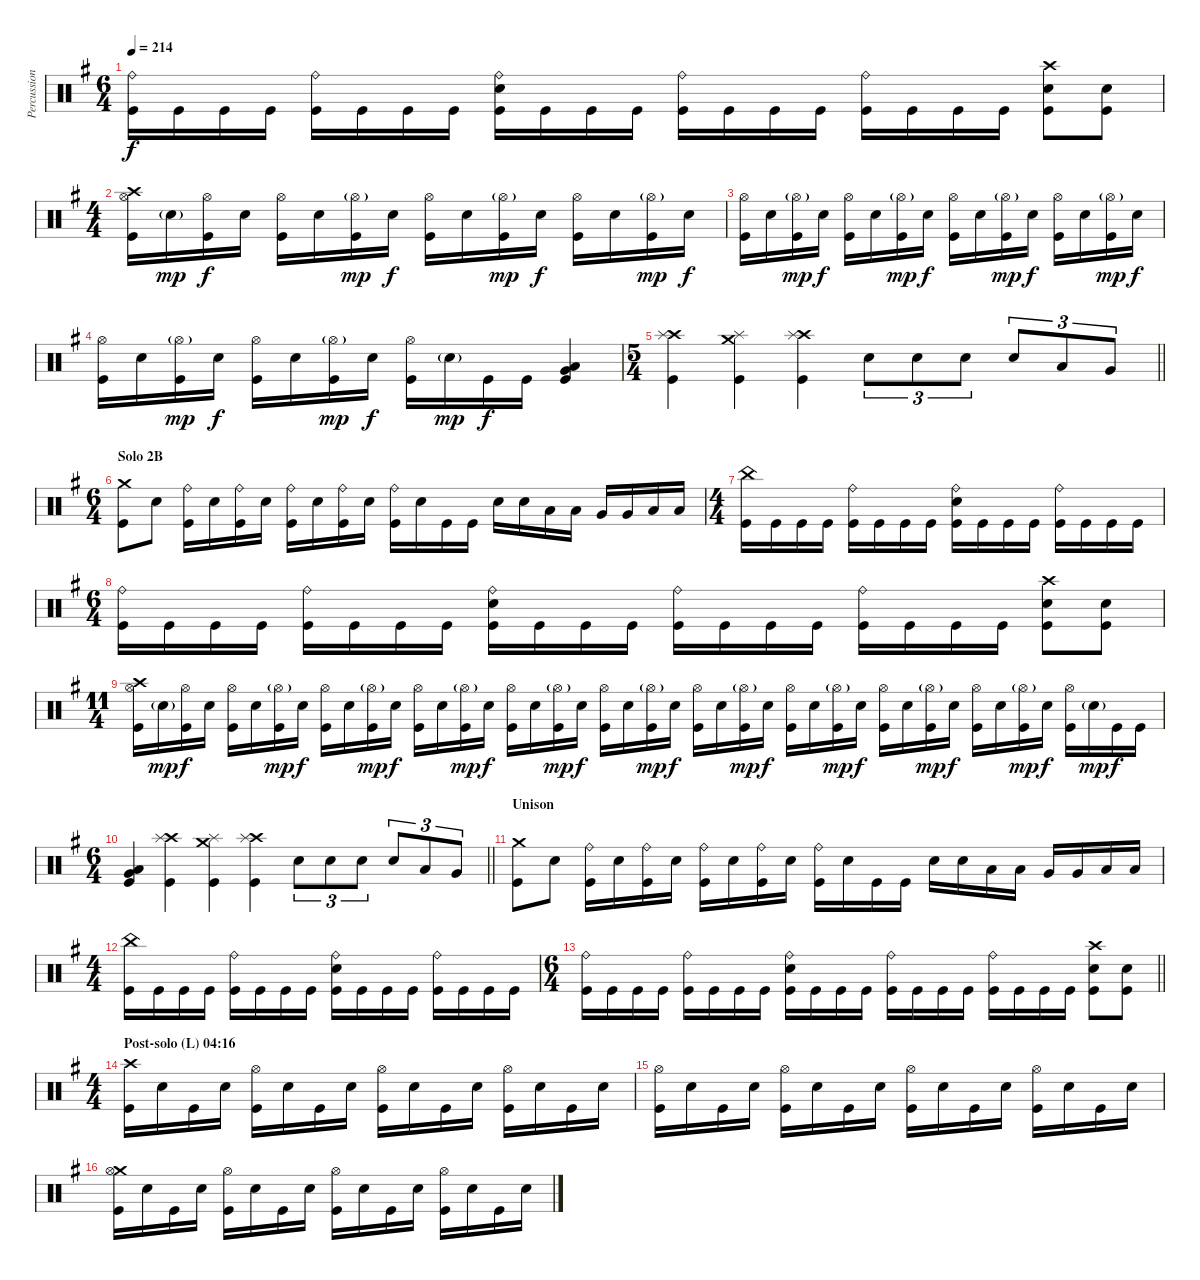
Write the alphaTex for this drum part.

\track ("Percussion" "Percussion") {instrument percussion}
\staff {score}
\articulation defaults
\ts (6 4)
\tempo 214
\clef neutral
\ks eminor
("Ride (bell)" "Kick (hit)").16{dy f} "Kick (hit)".16 "Kick (hit)".16 "Kick (hit)".16 ("Ride (bell)" "Kick (hit)").16 "Kick (hit)".16 "Kick (hit)".16 "Kick (hit)".16 ("Ride (bell)" "Snare (hit) 2" "Kick (hit)").16 "Kick (hit)".16 "Kick (hit)".16 "Kick (hit)".16 ("Ride (bell)" "Kick (hit)").16 "Kick (hit)".16 "Kick (hit)".16 "Kick (hit)".16 ("Ride (bell)" "Kick (hit)").16 "Kick (hit)".16 "Kick (hit)".16 "Kick (hit)".16 ("Crash high (hit)" "Snare (hit) 2" "Kick (hit)").8 ("Snare (hit) 2" "Kick (hit)").8 |
\ts (4 4)
("Crash high (hit)" "Hi-Hat (open)" "Kick (hit)").16 "Snare (hit) 2"{g}.16{dy mp} ("Hi-Hat (open)" "Kick (hit)").16{dy f} "Snare (hit) 2".16 ("Hi-Hat (open)" "Kick (hit)").16 "Snare (hit) 2".16 ("Hi-Hat (open)"{g} "Kick (hit)").16{dy mp} "Snare (hit) 2".16{dy f} ("Hi-Hat (open)" "Kick (hit)").16 "Snare (hit) 2".16 ("Hi-Hat (open)"{g} "Kick (hit)").16{dy mp} "Snare (hit) 2".16{dy f} ("Hi-Hat (open)" "Kick (hit)").16 "Snare (hit) 2".16 ("Hi-Hat (open)"{g} "Kick (hit)").16{dy mp} "Snare (hit) 2".16{dy f} |
("Hi-Hat (open)" "Kick (hit)").16 "Snare (hit) 2".16 ("Hi-Hat (open)"{g} "Kick (hit)").16{dy mp} "Snare (hit) 2".16{dy f} ("Hi-Hat (open)" "Kick (hit)").16 "Snare (hit) 2".16 ("Hi-Hat (open)"{g} "Kick (hit)").16{dy mp} "Snare (hit) 2".16{dy f} ("Hi-Hat (open)" "Kick (hit)").16 "Snare (hit) 2".16 ("Hi-Hat (open)"{g} "Kick (hit)").16{dy mp} "Snare (hit) 2".16{dy f} ("Hi-Hat (open)" "Kick (hit)").16 "Snare (hit) 2".16 ("Hi-Hat (open)"{g} "Kick (hit)").16{dy mp} "Snare (hit) 2".16{dy f} |
("Hi-Hat (open)" "Kick (hit)").16 "Snare (hit) 2".16 ("Hi-Hat (open)"{g} "Kick (hit)").16{dy mp} "Snare (hit) 2".16{dy f} ("Hi-Hat (open)" "Kick (hit)").16 "Snare (hit) 2".16 ("Hi-Hat (open)"{g} "Kick (hit)").16{dy mp} "Snare (hit) 2".16{dy f} ("Hi-Hat (open)" "Kick (hit)").16 "Snare (hit) 2"{g}.16{dy mp} "Kick (hit)".16{dy f} "Kick (hit)".16 ("Very Low Tom (hit)" "Low Floor Tom (hit)" "Kick (hit)").4 |
\ts (5 4)
\barLineRight lightlight
("Crash high (hit)" "Splash (hit)" "Kick (hit)").4 ("Crash medium (hit)" "Splash (hit)" "Kick (hit)").4 ("Crash high (hit)" "Splash (hit)" "Kick (hit)").4 "Snare (hit) 2".8{tu (3 2)} "Snare (hit) 2".8{tu (3 2)} "Snare (hit) 2".8{tu (3 2)} "Snare (hit) 2".8{tu (3 2)} "Low Tom (hit)".8{tu (3 2)} "Very Low Tom (hit)".8{tu (3 2)} |
\ts (6 4)
\section ("" "Solo 2B")
("Crash medium (hit)" "Kick (hit)").8 "Snare (hit) 2".8 ("Ride (bell)" "Kick (hit)").16 "Snare (hit) 2".16 ("Ride (bell)" "Kick (hit)").16 "Snare (hit) 2".16 ("Ride (bell)" "Kick (hit)").16 "Snare (hit) 2".16 ("Ride (bell)" "Kick (hit)").16 "Snare (hit) 2".16 ("Ride (bell)" "Kick (hit)").16 "Snare (hit) 2".16 "Kick (hit)".16 "Kick (hit)".16 "Snare (hit) 2".16 "Snare (hit) 2".16 "Low Tom (hit)".16 "Low Tom (hit)".16 "Very Low Tom (hit)".16 "Very Low Tom (hit)".16 "Low Floor Tom (hit)".16 "Low Floor Tom (hit)".16 |
\ts (4 4)
("China (hit)" "Kick (hit)").16 "Kick (hit)".16 "Kick (hit)".16 "Kick (hit)".16 ("Ride (bell)" "Kick (hit)").16 "Kick (hit)".16 "Kick (hit)".16 "Kick (hit)".16 ("Ride (bell)" "Snare (hit) 2" "Kick (hit)").16 "Kick (hit)".16 "Kick (hit)".16 "Kick (hit)".16 ("Ride (bell)" "Kick (hit)").16 "Kick (hit)".16 "Kick (hit)".16 "Kick (hit)".16 |
\ts (6 4)
("Ride (bell)" "Kick (hit)").16 "Kick (hit)".16 "Kick (hit)".16 "Kick (hit)".16 ("Ride (bell)" "Kick (hit)").16 "Kick (hit)".16 "Kick (hit)".16 "Kick (hit)".16 ("Ride (bell)" "Snare (hit) 2" "Kick (hit)").16 "Kick (hit)".16 "Kick (hit)".16 "Kick (hit)".16 ("Ride (bell)" "Kick (hit)").16 "Kick (hit)".16 "Kick (hit)".16 "Kick (hit)".16 ("Ride (bell)" "Kick (hit)").16 "Kick (hit)".16 "Kick (hit)".16 "Kick (hit)".16 ("Crash high (hit)" "Snare (hit) 2" "Kick (hit)").8 ("Snare (hit) 2" "Kick (hit)").8 |
\ts (11 4)
("Crash high (hit)" "Hi-Hat (open)" "Kick (hit)").16 "Snare (hit) 2"{g}.16{dy mp} ("Hi-Hat (open)" "Kick (hit)").16{dy f} "Snare (hit) 2".16 ("Hi-Hat (open)" "Kick (hit)").16 "Snare (hit) 2".16 ("Hi-Hat (open)"{g} "Kick (hit)").16{dy mp} "Snare (hit) 2".16{dy f} ("Hi-Hat (open)" "Kick (hit)").16 "Snare (hit) 2".16 ("Hi-Hat (open)"{g} "Kick (hit)").16{dy mp} "Snare (hit) 2".16{dy f} ("Hi-Hat (open)" "Kick (hit)").16 "Snare (hit) 2".16 ("Hi-Hat (open)"{g} "Kick (hit)").16{dy mp} "Snare (hit) 2".16{dy f} ("Hi-Hat (open)" "Kick (hit)").16 "Snare (hit) 2".16 ("Hi-Hat (open)"{g} "Kick (hit)").16{dy mp} "Snare (hit) 2".16{dy f} ("Hi-Hat (open)" "Kick (hit)").16 "Snare (hit) 2".16 ("Hi-Hat (open)"{g} "Kick (hit)").16{dy mp} "Snare (hit) 2".16{dy f} ("Hi-Hat (open)" "Kick (hit)").16 "Snare (hit) 2".16 ("Hi-Hat (open)"{g} "Kick (hit)").16{dy mp} "Snare (hit) 2".16{dy f} ("Hi-Hat (open)" "Kick (hit)").16 "Snare (hit) 2".16 ("Hi-Hat (open)"{g} "Kick (hit)").16{dy mp} "Snare (hit) 2".16{dy f} ("Hi-Hat (open)" "Kick (hit)").16 "Snare (hit) 2".16 ("Hi-Hat (open)"{g} "Kick (hit)").16{dy mp} "Snare (hit) 2".16{dy f} ("Hi-Hat (open)" "Kick (hit)").16 "Snare (hit) 2".16 ("Hi-Hat (open)"{g} "Kick (hit)").16{dy mp} "Snare (hit) 2".16{dy f} ("Hi-Hat (open)" "Kick (hit)").16 "Snare (hit) 2"{g}.16{dy mp} "Kick (hit)".16{dy f} "Kick (hit)".16 |
\ts (6 4)
\barLineRight lightlight
("Very Low Tom (hit)" "Low Floor Tom (hit)" "Kick (hit)").4 ("Crash high (hit)" "Splash (hit)" "Kick (hit)").4 ("Crash medium (hit)" "Splash (hit)" "Kick (hit)").4 ("Crash high (hit)" "Splash (hit)" "Kick (hit)").4 "Snare (hit) 2".8{tu (3 2)} "Snare (hit) 2".8{tu (3 2)} "Snare (hit) 2".8{tu (3 2)} "Snare (hit) 2".8{tu (3 2)} "Low Tom (hit)".8{tu (3 2)} "Very Low Tom (hit)".8{tu (3 2)} |
\section ("" "Unison")
("Crash medium (hit)" "Kick (hit)").8 "Snare (hit) 2".8 ("Ride (bell)" "Kick (hit)").16 "Snare (hit) 2".16 ("Ride (bell)" "Kick (hit)").16 "Snare (hit) 2".16 ("Ride (bell)" "Kick (hit)").16 "Snare (hit) 2".16 ("Ride (bell)" "Kick (hit)").16 "Snare (hit) 2".16 ("Ride (bell)" "Kick (hit)").16 "Snare (hit) 2".16 "Kick (hit)".16 "Kick (hit)".16 "Snare (hit) 2".16 "Snare (hit) 2".16 "Low Tom (hit)".16 "Low Tom (hit)".16 "Very Low Tom (hit)".16 "Very Low Tom (hit)".16 "Low Floor Tom (hit)".16 "Low Floor Tom (hit)".16 |
\ts (4 4)
("China (hit)" "Kick (hit)").16 "Kick (hit)".16 "Kick (hit)".16 "Kick (hit)".16 ("Ride (bell)" "Kick (hit)").16 "Kick (hit)".16 "Kick (hit)".16 "Kick (hit)".16 ("Ride (bell)" "Snare (hit) 2" "Kick (hit)").16 "Kick (hit)".16 "Kick (hit)".16 "Kick (hit)".16 ("Ride (bell)" "Kick (hit)").16 "Kick (hit)".16 "Kick (hit)".16 "Kick (hit)".16 |
\ts (6 4)
\barLineRight lightlight
("Ride (bell)" "Kick (hit)").16 "Kick (hit)".16 "Kick (hit)".16 "Kick (hit)".16 ("Ride (bell)" "Kick (hit)").16 "Kick (hit)".16 "Kick (hit)".16 "Kick (hit)".16 ("Ride (bell)" "Snare (hit) 2" "Kick (hit)").16 "Kick (hit)".16 "Kick (hit)".16 "Kick (hit)".16 ("Ride (bell)" "Kick (hit)").16 "Kick (hit)".16 "Kick (hit)".16 "Kick (hit)".16 ("Ride (bell)" "Kick (hit)").16 "Kick (hit)".16 "Kick (hit)".16 "Kick (hit)".16 ("Crash high (hit)" "Snare (hit) 2" "Kick (hit)").8 ("Snare (hit) 2" "Kick (hit)").8 |
\ts (4 4)
\section ("" "Post-solo (L) 04:16")
("Crash high (hit)" "Kick (hit)").16 "Snare (hit) 2".16 "Kick (hit)".16 "Snare (hit) 2".16 ("Hi-Hat (open)" "Kick (hit)").16 "Snare (hit) 2".16 "Kick (hit)".16 "Snare (hit) 2".16 ("Hi-Hat (open)" "Kick (hit)").16 "Snare (hit) 2".16 "Kick (hit)".16 "Snare (hit) 2".16 ("Hi-Hat (open)" "Kick (hit)").16 "Snare (hit) 2".16 "Kick (hit)".16 "Snare (hit) 2".16 |
("Hi-Hat (open)" "Kick (hit)").16 "Snare (hit) 2".16 "Kick (hit)".16 "Snare (hit) 2".16 ("Hi-Hat (open)" "Kick (hit)").16 "Snare (hit) 2".16 "Kick (hit)".16 "Snare (hit) 2".16 ("Hi-Hat (open)" "Kick (hit)").16 "Snare (hit) 2".16 "Kick (hit)".16 "Snare (hit) 2".16 ("Hi-Hat (open)" "Kick (hit)").16 "Snare (hit) 2".16 "Kick (hit)".16 "Snare (hit) 2".16 |
("Crash medium (hit)" "Hi-Hat (open)" "Kick (hit)").16 "Snare (hit) 2".16 "Kick (hit)".16 "Snare (hit) 2".16 ("Hi-Hat (open)" "Kick (hit)").16 "Snare (hit) 2".16 "Kick (hit)".16 "Snare (hit) 2".16 ("Hi-Hat (open)" "Kick (hit)").16 "Snare (hit) 2".16 "Kick (hit)".16 "Snare (hit) 2".16 ("Hi-Hat (open)" "Kick (hit)").16 "Snare (hit) 2".16 "Kick (hit)".16 "Snare (hit) 2".16
